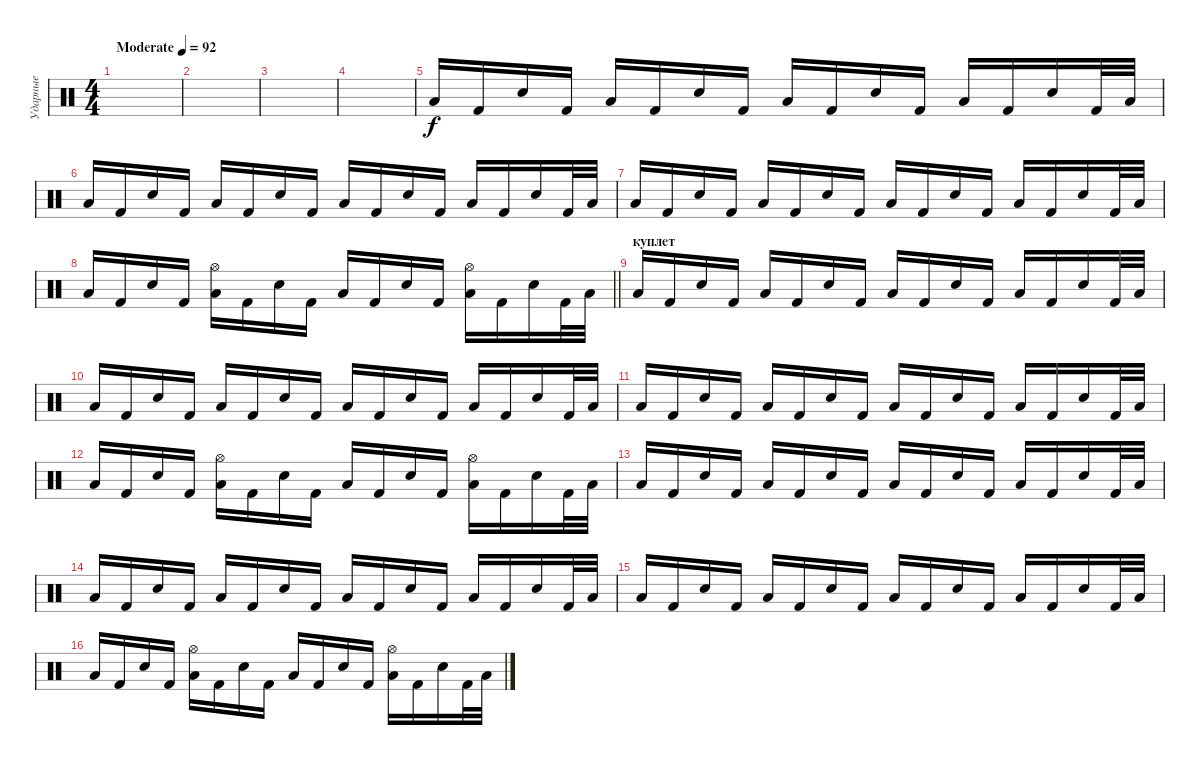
\track ("Ударные" "Ударные") {instrument percussion}
\staff {score}
\articulation defaults
\ts (4 4)
\tempo (92 "Moderate")
\clef neutral
\ks c
|
|
|
|
"Low Floor Tom (hit)".16 "Kick (hit) 2".16 "Electric Snare (hit)".16 "Kick (hit) 2".16 "Low Floor Tom (hit)".16 "Kick (hit) 2".16 "Electric Snare (hit)".16 "Kick (hit) 2".16 "Low Floor Tom (hit)".16 "Kick (hit) 2".16 "Electric Snare (hit)".16 "Kick (hit) 2".16 "Low Floor Tom (hit)".16 "Kick (hit) 2".16 "Electric Snare (hit)".16 "Kick (hit) 2".32 "Low Floor Tom (hit)".32 |
"Low Floor Tom (hit)".16 "Kick (hit) 2".16 "Electric Snare (hit)".16 "Kick (hit) 2".16 "Low Floor Tom (hit)".16 "Kick (hit) 2".16 "Electric Snare (hit)".16 "Kick (hit) 2".16 "Low Floor Tom (hit)".16 "Kick (hit) 2".16 "Electric Snare (hit)".16 "Kick (hit) 2".16 "Low Floor Tom (hit)".16 "Kick (hit) 2".16 "Electric Snare (hit)".16 "Kick (hit) 2".32 "Low Floor Tom (hit)".32 |
"Low Floor Tom (hit)".16 "Kick (hit) 2".16 "Electric Snare (hit)".16 "Kick (hit) 2".16 "Low Floor Tom (hit)".16 "Kick (hit) 2".16 "Electric Snare (hit)".16 "Kick (hit) 2".16 "Low Floor Tom (hit)".16 "Kick (hit) 2".16 "Electric Snare (hit)".16 "Kick (hit) 2".16 "Low Floor Tom (hit)".16 "Kick (hit) 2".16 "Electric Snare (hit)".16 "Kick (hit) 2".32 "Low Floor Tom (hit)".32 |
\barLineRight lightlight "Low Floor Tom (hit)".16 "Kick (hit) 2".16 "Electric Snare (hit)".16 "Kick (hit) 2".16
("Hi-Hat (open)" "Low Floor Tom (hit)").16 "Kick (hit) 2".16 "Electric Snare (hit)".16 "Kick (hit) 2".16 "Low Floor Tom (hit)".16 "Kick (hit) 2".16 "Electric Snare (hit)".16 "Kick (hit) 2".16 ("Hi-Hat (open)" "Low Floor Tom (hit)").16 "Kick (hit) 2".16 "Electric Snare (hit)".16 "Kick (hit) 2".32 "Low Floor Tom (hit)".32 |
\section ("" "куплет")
"Low Floor Tom (hit)".16 "Kick (hit) 2".16 "Electric Snare (hit)".16 "Kick (hit) 2".16 "Low Floor Tom (hit)".16 "Kick (hit) 2".16 "Electric Snare (hit)".16 "Kick (hit) 2".16 "Low Floor Tom (hit)".16 "Kick (hit) 2".16 "Electric Snare (hit)".16 "Kick (hit) 2".16 "Low Floor Tom (hit)".16 "Kick (hit) 2".16 "Electric Snare (hit)".16 "Kick (hit) 2".32 "Low Floor Tom (hit)".32 |
"Low Floor Tom (hit)".16 "Kick (hit) 2".16 "Electric Snare (hit)".16 "Kick (hit) 2".16 "Low Floor Tom (hit)".16 "Kick (hit) 2".16 "Electric Snare (hit)".16 "Kick (hit) 2".16 "Low Floor Tom (hit)".16 "Kick (hit) 2".16 "Electric Snare (hit)".16 "Kick (hit) 2".16 "Low Floor Tom (hit)".16 "Kick (hit) 2".16 "Electric Snare (hit)".16 "Kick (hit) 2".32 "Low Floor Tom (hit)".32 |
"Low Floor Tom (hit)".16 "Kick (hit) 2".16 "Electric Snare (hit)".16 "Kick (hit) 2".16 "Low Floor Tom (hit)".16 "Kick (hit) 2".16 "Electric Snare (hit)".16 "Kick (hit) 2".16 "Low Floor Tom (hit)".16 "Kick (hit) 2".16 "Electric Snare (hit)".16 "Kick (hit) 2".16 "Low Floor Tom (hit)".16 "Kick (hit) 2".16 "Electric Snare (hit)".16 "Kick (hit) 2".32 "Low Floor Tom (hit)".32 |
"Low Floor Tom (hit)".16 "Kick (hit) 2".16 "Electric Snare (hit)".16 "Kick (hit) 2".16 ("Hi-Hat (open)" "Low Floor Tom (hit)").16 "Kick (hit) 2".16 "Electric Snare (hit)".16 "Kick (hit) 2".16 "Low Floor Tom (hit)".16 "Kick (hit) 2".16 "Electric Snare (hit)".16 "Kick (hit) 2".16 ("Hi-Hat (open)" "Low Floor Tom (hit)").16 "Kick (hit) 2".16 "Electric Snare (hit)".16 "Kick (hit) 2".32 "Low Floor Tom (hit)".32 |
"Low Floor Tom (hit)".16 "Kick (hit) 2".16 "Electric Snare (hit)".16 "Kick (hit) 2".16 "Low Floor Tom (hit)".16 "Kick (hit) 2".16 "Electric Snare (hit)".16 "Kick (hit) 2".16 "Low Floor Tom (hit)".16 "Kick (hit) 2".16 "Electric Snare (hit)".16 "Kick (hit) 2".16 "Low Floor Tom (hit)".16 "Kick (hit) 2".16 "Electric Snare (hit)".16 "Kick (hit) 2".32 "Low Floor Tom (hit)".32 |
"Low Floor Tom (hit)".16 "Kick (hit) 2".16 "Electric Snare (hit)".16 "Kick (hit) 2".16 "Low Floor Tom (hit)".16 "Kick (hit) 2".16 "Electric Snare (hit)".16 "Kick (hit) 2".16 "Low Floor Tom (hit)".16 "Kick (hit) 2".16 "Electric Snare (hit)".16 "Kick (hit) 2".16 "Low Floor Tom (hit)".16 "Kick (hit) 2".16 "Electric Snare (hit)".16 "Kick (hit) 2".32 "Low Floor Tom (hit)".32 |
"Low Floor Tom (hit)".16 "Kick (hit) 2".16 "Electric Snare (hit)".16 "Kick (hit) 2".16 "Low Floor Tom (hit)".16 "Kick (hit) 2".16 "Electric Snare (hit)".16 "Kick (hit) 2".16 "Low Floor Tom (hit)".16 "Kick (hit) 2".16 "Electric Snare (hit)".16 "Kick (hit) 2".16 "Low Floor Tom (hit)".16 "Kick (hit) 2".16 "Electric Snare (hit)".16 "Kick (hit) 2".32 "Low Floor Tom (hit)".32 |
"Low Floor Tom (hit)".16 "Kick (hit) 2".16 "Electric Snare (hit)".16 "Kick (hit) 2".16 ("Hi-Hat (open)" "Low Floor Tom (hit)").16 "Kick (hit) 2".16 "Electric Snare (hit)".16 "Kick (hit) 2".16 "Low Floor Tom (hit)".16 "Kick (hit) 2".16 "Electric Snare (hit)".16 "Kick (hit) 2".16 ("Hi-Hat (open)" "Low Floor Tom (hit)").16 "Kick (hit) 2".16 "Electric Snare (hit)".16 "Kick (hit) 2".32 "Low Floor Tom (hit)".32
